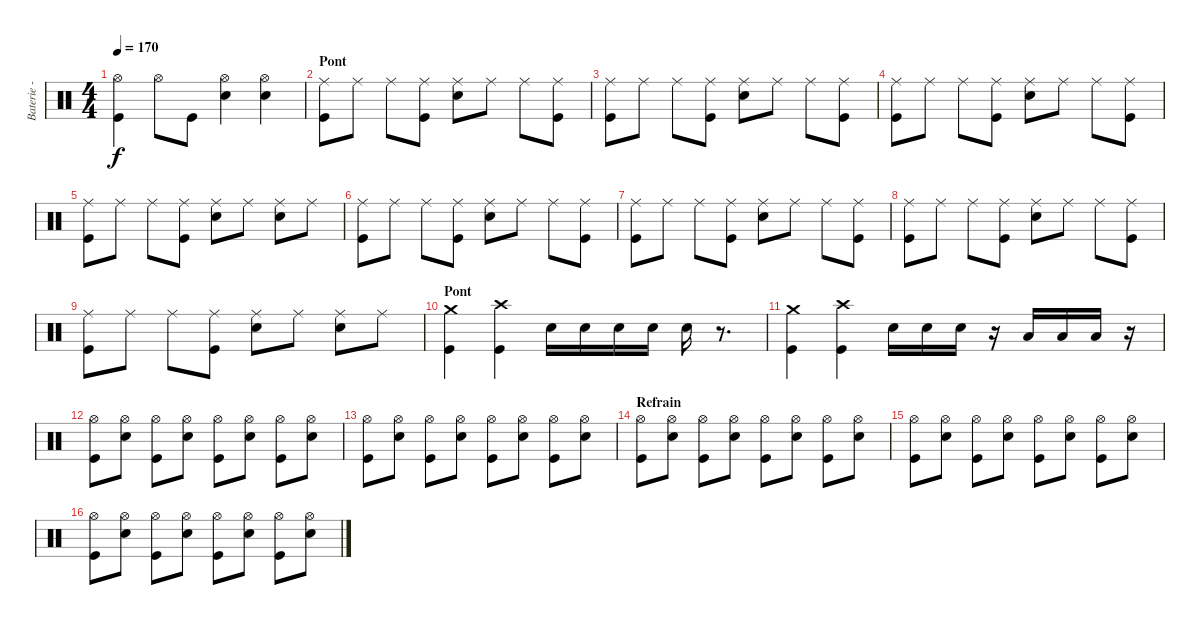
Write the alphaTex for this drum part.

\track ("Baterie - Guillaume" "Baterie - ") {instrument percussion}
\staff {score}
\articulation defaults
\ts (4 4)
\tempo 170
\clef neutral
\ks c
("Hi-Hat (open)" "Kick (hit)").4{dy f} "Hi-Hat (open)".8 "Kick (hit)".8 ("Hi-Hat (open)" "Electric Snare (hit)").4 ("Hi-Hat (open)" "Electric Snare (hit)").4 |
\section ("" "Pont")
("Ride (middle)" "Kick (hit)").8 "Ride (middle)".8 "Ride (middle)".8 ("Ride (middle)" "Kick (hit)").8 ("Ride (middle)" "Electric Snare (hit)").8 "Ride (middle)".8 "Ride (middle)".8 ("Ride (middle)" "Kick (hit)").8 |
("Ride (middle)" "Kick (hit)").8 "Ride (middle)".8 "Ride (middle)".8 ("Ride (middle)" "Kick (hit)").8 ("Ride (middle)" "Electric Snare (hit)").8 "Ride (middle)".8 "Ride (middle)".8 ("Ride (middle)" "Kick (hit)").8 |
("Ride (middle)" "Kick (hit)").8 "Ride (middle)".8 "Ride (middle)".8 ("Ride (middle)" "Kick (hit)").8 ("Ride (middle)" "Electric Snare (hit)").8 "Ride (middle)".8 "Ride (middle)".8 ("Ride (middle)" "Kick (hit)").8 |
("Ride (middle)" "Kick (hit)").8 "Ride (middle)".8 "Ride (middle)".8 ("Ride (middle)" "Kick (hit)").8 ("Ride (middle)" "Electric Snare (hit)").8 "Ride (middle)".8 ("Ride (middle)" "Electric Snare (hit)").8 "Ride (middle)".8 |
("Ride (middle)" "Kick (hit)").8 "Ride (middle)".8 "Ride (middle)".8 ("Ride (middle)" "Kick (hit)").8 ("Ride (middle)" "Electric Snare (hit)").8 "Ride (middle)".8 "Ride (middle)".8 ("Ride (middle)" "Kick (hit)").8 |
("Ride (middle)" "Kick (hit)").8 "Ride (middle)".8 "Ride (middle)".8 ("Ride (middle)" "Kick (hit)").8 ("Ride (middle)" "Electric Snare (hit)").8 "Ride (middle)".8 "Ride (middle)".8 ("Ride (middle)" "Kick (hit)").8 |
("Ride (middle)" "Kick (hit)").8 "Ride (middle)".8 "Ride (middle)".8 ("Ride (middle)" "Kick (hit)").8 ("Ride (middle)" "Electric Snare (hit)").8 "Ride (middle)".8 "Ride (middle)".8 ("Ride (middle)" "Kick (hit)").8 |
("Ride (middle)" "Kick (hit)").8 "Ride (middle)".8 "Ride (middle)".8 ("Ride (middle)" "Kick (hit)").8 ("Ride (middle)" "Electric Snare (hit)").8 "Ride (middle)".8 ("Ride (middle)" "Electric Snare (hit)").8 "Ride (middle)".8 |
\section ("" "Pont")
("Crash medium (hit)" "Kick (hit)").4 ("Crash high (hit)" "Kick (hit)").4 "Electric Snare (hit)".16 "Electric Snare (hit)".16 "Electric Snare (hit)".16 "Electric Snare (hit)".16 "Electric Snare (hit)".16 r.8{d} |
("Crash medium (hit)" "Kick (hit)").4 ("Crash high (hit)" "Kick (hit)").4 "Electric Snare (hit)".16 "Electric Snare (hit)".16 "Electric Snare (hit)".16 r.16 "Low Tom (hit)".16 "Low Tom (hit)".16 "Low Tom (hit)".16 r.16 |
("Hi-Hat (open)" "Kick (hit)").8 ("Hi-Hat (open)" "Electric Snare (hit)").8 ("Hi-Hat (open)" "Kick (hit)").8 ("Hi-Hat (open)" "Electric Snare (hit)").8 ("Hi-Hat (open)" "Kick (hit)").8 ("Hi-Hat (open)" "Electric Snare (hit)").8 ("Hi-Hat (open)" "Kick (hit)").8 ("Hi-Hat (open)" "Electric Snare (hit)").8 |
("Hi-Hat (open)" "Kick (hit)").8 ("Hi-Hat (open)" "Electric Snare (hit)").8 ("Hi-Hat (open)" "Kick (hit)").8 ("Hi-Hat (open)" "Electric Snare (hit)").8 ("Hi-Hat (open)" "Kick (hit)").8 ("Hi-Hat (open)" "Electric Snare (hit)").8 ("Hi-Hat (open)" "Kick (hit)").8 ("Hi-Hat (open)" "Electric Snare (hit)").8 |
\section ("" "Refrain")
("Hi-Hat (open)" "Kick (hit)").8 ("Hi-Hat (open)" "Electric Snare (hit)").8 ("Hi-Hat (open)" "Kick (hit)").8 ("Hi-Hat (open)" "Electric Snare (hit)").8 ("Hi-Hat (open)" "Kick (hit)").8 ("Hi-Hat (open)" "Electric Snare (hit)").8 ("Hi-Hat (open)" "Kick (hit)").8 ("Hi-Hat (open)" "Electric Snare (hit)").8 |
("Hi-Hat (open)" "Kick (hit)").8 ("Hi-Hat (open)" "Electric Snare (hit)").8 ("Hi-Hat (open)" "Kick (hit)").8 ("Hi-Hat (open)" "Electric Snare (hit)").8 ("Hi-Hat (open)" "Kick (hit)").8 ("Hi-Hat (open)" "Electric Snare (hit)").8 ("Hi-Hat (open)" "Kick (hit)").8 ("Hi-Hat (open)" "Electric Snare (hit)").8 |
("Hi-Hat (open)" "Kick (hit)").8 ("Hi-Hat (open)" "Electric Snare (hit)").8 ("Hi-Hat (open)" "Kick (hit)").8 ("Hi-Hat (open)" "Electric Snare (hit)").8 ("Hi-Hat (open)" "Kick (hit)").8 ("Hi-Hat (open)" "Electric Snare (hit)").8 ("Hi-Hat (open)" "Kick (hit)").8 ("Hi-Hat (open)" "Electric Snare (hit)").8
